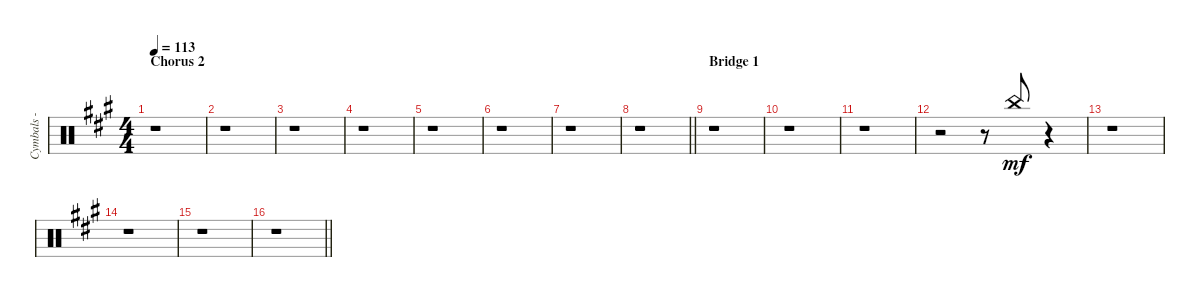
\track ("Cymbals - china" "Cymbals - ") {instrument percussion}
\staff {score}
\articulation defaults
\ts (4 4)
\section ("" "Chorus 2")
\tempo 113
\clef neutral
\ks f#minor
r.1{dy mf} |
r.1 |
r.1 |
r.1 |
r.1 |
r.1 |
r.1 |
\barLineRight lightlight
r.1 |
\section ("" "Bridge 1")
r.1 |
r.1 |
r.1 |
r.2 r.8 "China (hit)".8{beam Up} r.4 |
r.1 |
r.1 |
r.1 |
\barLineRight lightlight
r.1
